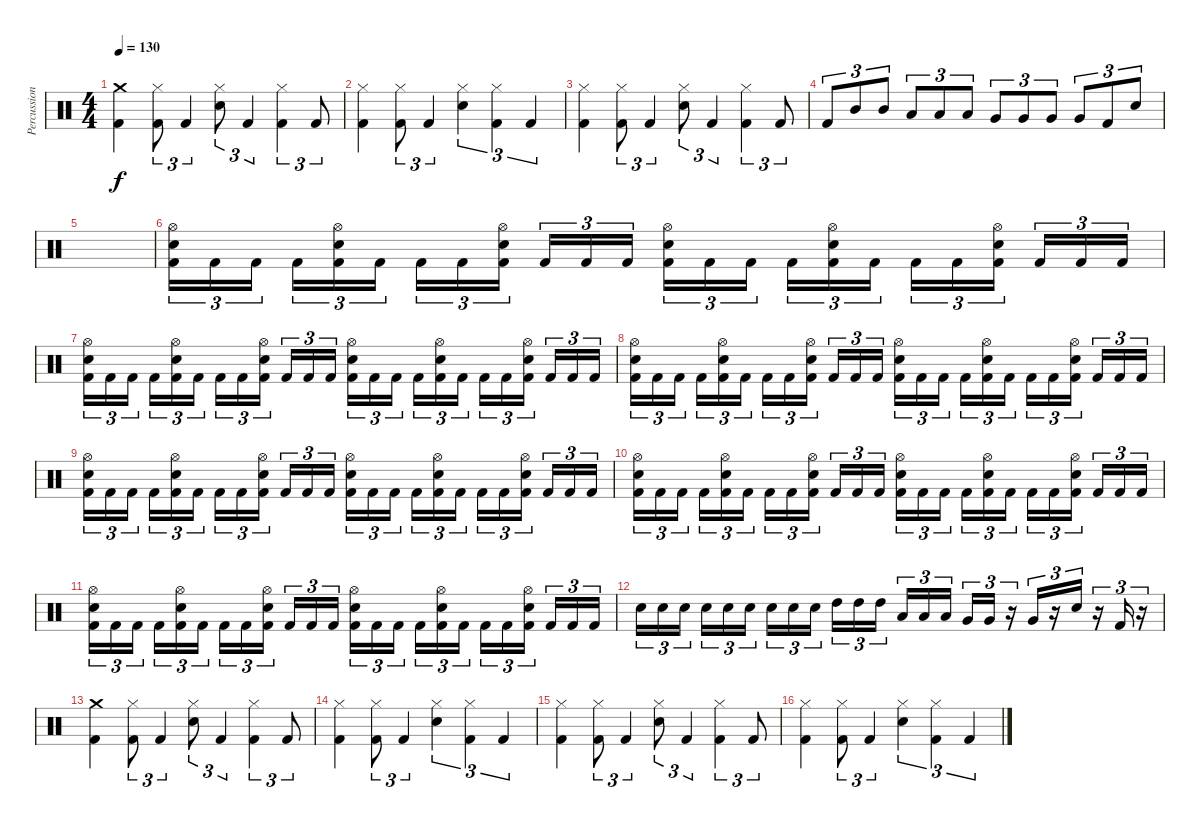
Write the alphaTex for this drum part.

\track ("Percussion" "Percussion") {instrument percussion}
\staff {score}
\articulation defaults
\ts (4 4)
\tempo 130
\clef neutral
\ks c
("Kick (hit) 2" "Crash medium (hit)").4{dy f} ("Kick (hit) 2" "Hi-Hat (closed)").8{tu (3 2)} "Kick (hit) 2".4{tu (3 2)} ("Snare (hit) 2" "Hi-Hat (closed)").8{tu (3 2)} "Kick (hit) 2".4{tu (3 2)} ("Kick (hit) 2" "Hi-Hat (closed)").4{tu (3 2)} "Kick (hit) 2".8{tu (3 2)} |
("Kick (hit) 2" "Hi-Hat (closed)").4 ("Kick (hit) 2" "Hi-Hat (closed)").8{tu (3 2)} "Kick (hit) 2".4{tu (3 2)} ("Snare (hit) 2" "Hi-Hat (closed)").4{tu (3 2)} ("Kick (hit) 2" "Hi-Hat (closed)").4{tu (3 2)} "Kick (hit) 2".4{tu (3 2)} |
("Kick (hit) 2" "Hi-Hat (closed)").4 ("Kick (hit) 2" "Hi-Hat (closed)").8{tu (3 2)} "Kick (hit) 2".4{tu (3 2)} ("Snare (hit) 2" "Hi-Hat (closed)").8{tu (3 2)} "Kick (hit) 2".4{tu (3 2)} ("Kick (hit) 2" "Hi-Hat (closed)").4{tu (3 2)} "Kick (hit) 2".8{tu (3 2)} |
"Kick (hit) 2".8{tu (3 2)} "Mid Tom (hit)".8{tu (3 2)} "Mid Tom (hit)".8{tu (3 2)} "Low Tom (hit)".8{tu (3 2)} "Low Tom (hit)".8{tu (3 2)} "Low Tom (hit)".8{tu (3 2)} "Very Low Tom (hit)".8{tu (3 2)} "Very Low Tom (hit)".8{tu (3 2)} "Very Low Tom (hit)".8{tu (3 2)} "Very Low Tom (hit)".8{tu (3 2)} "Kick (hit) 2".8{tu (3 2)} "Snare (hit) 2".8{tu (3 2)} |
|
("Kick (hit) 2" "Snare (hit) 2" "Hi-Hat (open)").16{tu (3 2)} "Kick (hit) 2".16{tu (3 2)} "Kick (hit) 2".16{tu (3 2) beam splitsecondary} "Kick (hit) 2".16{tu (3 2)} ("Kick (hit) 2" "Snare (hit) 2" "Hi-Hat (open)").16{tu (3 2)} "Kick (hit) 2".16{tu (3 2)} "Kick (hit) 2".16{tu (3 2)} "Kick (hit) 2".16{tu (3 2)} ("Kick (hit) 2" "Snare (hit) 2" "Hi-Hat (open)").16{tu (3 2) beam splitsecondary} "Kick (hit) 2".16{tu (3 2)} "Kick (hit) 2".16{tu (3 2)} "Kick (hit) 2".16{tu (3 2)} ("Kick (hit) 2" "Snare (hit) 2" "Hi-Hat (open)").16{tu (3 2)} "Kick (hit) 2".16{tu (3 2)} "Kick (hit) 2".16{tu (3 2) beam splitsecondary} "Kick (hit) 2".16{tu (3 2)} ("Kick (hit) 2" "Snare (hit) 2" "Hi-Hat (open)").16{tu (3 2)} "Kick (hit) 2".16{tu (3 2)} "Kick (hit) 2".16{tu (3 2)} "Kick (hit) 2".16{tu (3 2)} ("Kick (hit) 2" "Snare (hit) 2" "Hi-Hat (open)").16{tu (3 2) beam splitsecondary} "Kick (hit) 2".16{tu (3 2)} "Kick (hit) 2".16{tu (3 2)} "Kick (hit) 2".16{tu (3 2)} |
("Kick (hit) 2" "Snare (hit) 2" "Hi-Hat (open)").16{tu (3 2)} "Kick (hit) 2".16{tu (3 2)} "Kick (hit) 2".16{tu (3 2) beam splitsecondary} "Kick (hit) 2".16{tu (3 2)} ("Kick (hit) 2" "Snare (hit) 2" "Hi-Hat (open)").16{tu (3 2)} "Kick (hit) 2".16{tu (3 2)} "Kick (hit) 2".16{tu (3 2)} "Kick (hit) 2".16{tu (3 2)} ("Kick (hit) 2" "Snare (hit) 2" "Hi-Hat (open)").16{tu (3 2) beam splitsecondary} "Kick (hit) 2".16{tu (3 2)} "Kick (hit) 2".16{tu (3 2)} "Kick (hit) 2".16{tu (3 2)} ("Kick (hit) 2" "Snare (hit) 2" "Hi-Hat (open)").16{tu (3 2)} "Kick (hit) 2".16{tu (3 2)} "Kick (hit) 2".16{tu (3 2) beam splitsecondary} "Kick (hit) 2".16{tu (3 2)} ("Kick (hit) 2" "Snare (hit) 2" "Hi-Hat (open)").16{tu (3 2)} "Kick (hit) 2".16{tu (3 2)} "Kick (hit) 2".16{tu (3 2)} "Kick (hit) 2".16{tu (3 2)} ("Kick (hit) 2" "Snare (hit) 2" "Hi-Hat (open)").16{tu (3 2) beam splitsecondary} "Kick (hit) 2".16{tu (3 2)} "Kick (hit) 2".16{tu (3 2)} "Kick (hit) 2".16{tu (3 2)} |
("Kick (hit) 2" "Snare (hit) 2" "Hi-Hat (open)").16{tu (3 2)} "Kick (hit) 2".16{tu (3 2)} "Kick (hit) 2".16{tu (3 2) beam splitsecondary} "Kick (hit) 2".16{tu (3 2)} ("Kick (hit) 2" "Snare (hit) 2" "Hi-Hat (open)").16{tu (3 2)} "Kick (hit) 2".16{tu (3 2)} "Kick (hit) 2".16{tu (3 2)} "Kick (hit) 2".16{tu (3 2)} ("Kick (hit) 2" "Snare (hit) 2" "Hi-Hat (open)").16{tu (3 2) beam splitsecondary} "Kick (hit) 2".16{tu (3 2)} "Kick (hit) 2".16{tu (3 2)} "Kick (hit) 2".16{tu (3 2)} ("Kick (hit) 2" "Snare (hit) 2" "Hi-Hat (open)").16{tu (3 2)} "Kick (hit) 2".16{tu (3 2)} "Kick (hit) 2".16{tu (3 2) beam splitsecondary} "Kick (hit) 2".16{tu (3 2)} ("Kick (hit) 2" "Snare (hit) 2" "Hi-Hat (open)").16{tu (3 2)} "Kick (hit) 2".16{tu (3 2)} "Kick (hit) 2".16{tu (3 2)} "Kick (hit) 2".16{tu (3 2)} ("Kick (hit) 2" "Snare (hit) 2" "Hi-Hat (open)").16{tu (3 2) beam splitsecondary} "Kick (hit) 2".16{tu (3 2)} "Kick (hit) 2".16{tu (3 2)} "Kick (hit) 2".16{tu (3 2)} |
("Kick (hit) 2" "Snare (hit) 2" "Hi-Hat (open)").16{tu (3 2)} "Kick (hit) 2".16{tu (3 2)} "Kick (hit) 2".16{tu (3 2) beam splitsecondary} "Kick (hit) 2".16{tu (3 2)} ("Kick (hit) 2" "Snare (hit) 2" "Hi-Hat (open)").16{tu (3 2)} "Kick (hit) 2".16{tu (3 2)} "Kick (hit) 2".16{tu (3 2)} "Kick (hit) 2".16{tu (3 2)} ("Kick (hit) 2" "Snare (hit) 2" "Hi-Hat (open)").16{tu (3 2) beam splitsecondary} "Kick (hit) 2".16{tu (3 2)} "Kick (hit) 2".16{tu (3 2)} "Kick (hit) 2".16{tu (3 2)} ("Kick (hit) 2" "Snare (hit) 2" "Hi-Hat (open)").16{tu (3 2)} "Kick (hit) 2".16{tu (3 2)} "Kick (hit) 2".16{tu (3 2) beam splitsecondary} "Kick (hit) 2".16{tu (3 2)} ("Kick (hit) 2" "Snare (hit) 2" "Hi-Hat (open)").16{tu (3 2)} "Kick (hit) 2".16{tu (3 2)} "Kick (hit) 2".16{tu (3 2)} "Kick (hit) 2".16{tu (3 2)} ("Kick (hit) 2" "Snare (hit) 2" "Hi-Hat (open)").16{tu (3 2) beam splitsecondary} "Kick (hit) 2".16{tu (3 2)} "Kick (hit) 2".16{tu (3 2)} "Kick (hit) 2".16{tu (3 2)} |
("Kick (hit) 2" "Snare (hit) 2" "Hi-Hat (open)").16{tu (3 2)} "Kick (hit) 2".16{tu (3 2)} "Kick (hit) 2".16{tu (3 2) beam splitsecondary} "Kick (hit) 2".16{tu (3 2)} ("Kick (hit) 2" "Snare (hit) 2" "Hi-Hat (open)").16{tu (3 2)} "Kick (hit) 2".16{tu (3 2)} "Kick (hit) 2".16{tu (3 2)} "Kick (hit) 2".16{tu (3 2)} ("Kick (hit) 2" "Snare (hit) 2" "Hi-Hat (open)").16{tu (3 2) beam splitsecondary} "Kick (hit) 2".16{tu (3 2)} "Kick (hit) 2".16{tu (3 2)} "Kick (hit) 2".16{tu (3 2)} ("Kick (hit) 2" "Snare (hit) 2" "Hi-Hat (open)").16{tu (3 2)} "Kick (hit) 2".16{tu (3 2)} "Kick (hit) 2".16{tu (3 2) beam splitsecondary} "Kick (hit) 2".16{tu (3 2)} ("Kick (hit) 2" "Snare (hit) 2" "Hi-Hat (open)").16{tu (3 2)} "Kick (hit) 2".16{tu (3 2)} "Kick (hit) 2".16{tu (3 2)} "Kick (hit) 2".16{tu (3 2)} ("Kick (hit) 2" "Snare (hit) 2" "Hi-Hat (open)").16{tu (3 2) beam splitsecondary} "Kick (hit) 2".16{tu (3 2)} "Kick (hit) 2".16{tu (3 2)} "Kick (hit) 2".16{tu (3 2)} |
("Kick (hit) 2" "Snare (hit) 2" "Hi-Hat (open)").16{tu (3 2)} "Kick (hit) 2".16{tu (3 2)} "Kick (hit) 2".16{tu (3 2) beam splitsecondary} "Kick (hit) 2".16{tu (3 2)} ("Kick (hit) 2" "Snare (hit) 2" "Hi-Hat (open)").16{tu (3 2)} "Kick (hit) 2".16{tu (3 2)} "Kick (hit) 2".16{tu (3 2)} "Kick (hit) 2".16{tu (3 2)} ("Kick (hit) 2" "Snare (hit) 2" "Hi-Hat (open)").16{tu (3 2) beam splitsecondary} "Kick (hit) 2".16{tu (3 2)} "Kick (hit) 2".16{tu (3 2)} "Kick (hit) 2".16{tu (3 2)} ("Kick (hit) 2" "Snare (hit) 2" "Hi-Hat (open)").16{tu (3 2)} "Kick (hit) 2".16{tu (3 2)} "Kick (hit) 2".16{tu (3 2) beam splitsecondary} "Kick (hit) 2".16{tu (3 2)} ("Kick (hit) 2" "Snare (hit) 2" "Hi-Hat (open)").16{tu (3 2)} "Kick (hit) 2".16{tu (3 2)} "Kick (hit) 2".16{tu (3 2)} "Kick (hit) 2".16{tu (3 2)} ("Kick (hit) 2" "Snare (hit) 2" "Hi-Hat (open)").16{tu (3 2) beam splitsecondary} "Kick (hit) 2".16{tu (3 2)} "Kick (hit) 2".16{tu (3 2)} "Kick (hit) 2".16{tu (3 2)} |
"Snare (hit) 2".16{tu (3 2)} "Snare (hit) 2".16{tu (3 2)} "Snare (hit) 2".16{tu (3 2) beam splitsecondary} "Snare (hit) 2".16{tu (3 2)} "Snare (hit) 2".16{tu (3 2)} "Snare (hit) 2".16{tu (3 2)} "Snare (hit) 2".16{tu (3 2)} "Snare (hit) 2".16{tu (3 2)} "Snare (hit) 2".16{tu (3 2) beam splitsecondary} "High Tom (hit)".16{tu (3 2)} "High Tom (hit)".16{tu (3 2)} "High Tom (hit)".16{tu (3 2)} "Low Tom (hit)".16{tu (3 2)} "Low Tom (hit)".16{tu (3 2)} "Low Tom (hit)".16{tu (3 2) beam splitsecondary} "Very Low Tom (hit)".16{tu (3 2)} "Very Low Tom (hit)".16{tu (3 2)} r.16{tu (3 2)} "Very Low Tom (hit)".16{tu (3 2)} r.16{tu (3 2)} "Snare (hit) 2".16{tu (3 2)} r.16{tu (3 2)} "Kick (hit) 2".16{tu (3 2)} r.16{tu (3 2)} |
("Kick (hit) 2" "Crash medium (hit)").4 ("Kick (hit) 2" "Hi-Hat (closed)").8{tu (3 2)} "Kick (hit) 2".4{tu (3 2)} ("Snare (hit) 2" "Hi-Hat (closed)").8{tu (3 2)} "Kick (hit) 2".4{tu (3 2)} ("Kick (hit) 2" "Hi-Hat (closed)").4{tu (3 2)} "Kick (hit) 2".8{tu (3 2)} |
("Kick (hit) 2" "Hi-Hat (closed)").4 ("Kick (hit) 2" "Hi-Hat (closed)").8{tu (3 2)} "Kick (hit) 2".4{tu (3 2)} ("Snare (hit) 2" "Hi-Hat (closed)").4{tu (3 2)} ("Kick (hit) 2" "Hi-Hat (closed)").4{tu (3 2)} "Kick (hit) 2".4{tu (3 2)} |
("Kick (hit) 2" "Hi-Hat (closed)").4 ("Kick (hit) 2" "Hi-Hat (closed)").8{tu (3 2)} "Kick (hit) 2".4{tu (3 2)} ("Snare (hit) 2" "Hi-Hat (closed)").8{tu (3 2)} "Kick (hit) 2".4{tu (3 2)} ("Kick (hit) 2" "Hi-Hat (closed)").4{tu (3 2)} "Kick (hit) 2".8{tu (3 2)} |
("Kick (hit) 2" "Hi-Hat (closed)").4 ("Kick (hit) 2" "Hi-Hat (closed)").8{tu (3 2)} "Kick (hit) 2".4{tu (3 2)} ("Snare (hit) 2" "Hi-Hat (closed)").4{tu (3 2)} ("Kick (hit) 2" "Hi-Hat (closed)").4{tu (3 2)} "Kick (hit) 2".4{tu (3 2)}
